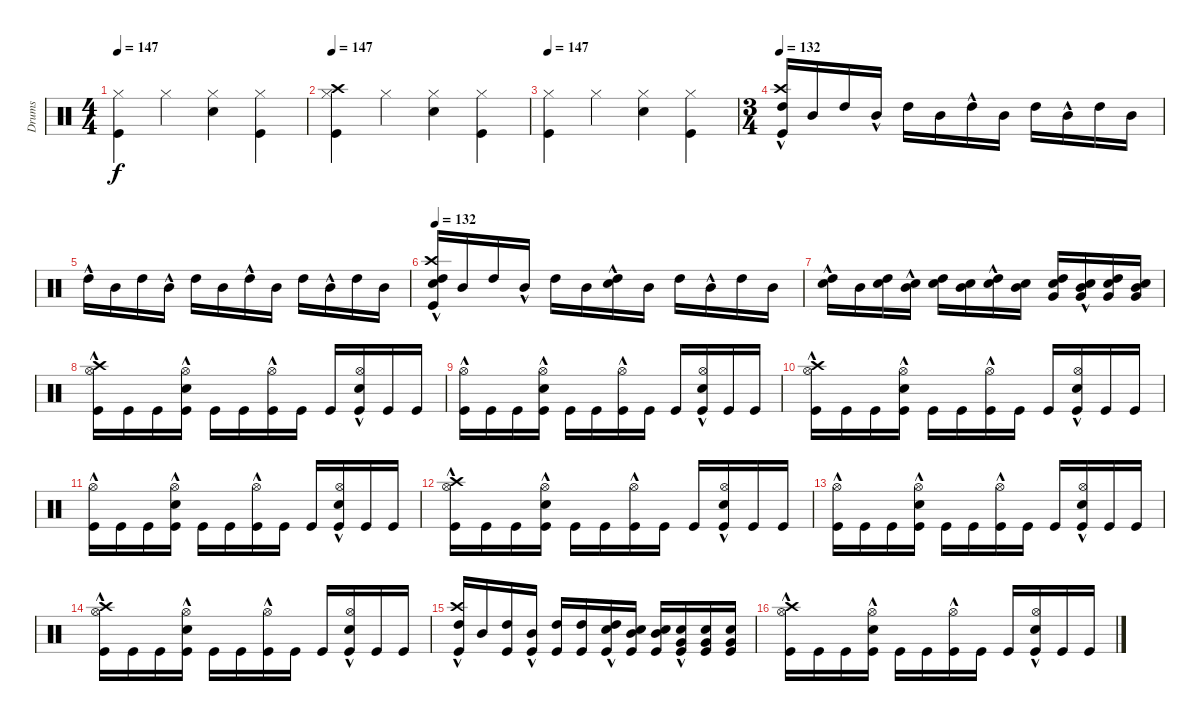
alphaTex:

\track ("Drums" "Drums") {instrument percussion}
\staff {score}
\articulation defaults
\ts (4 4)
\tempo 147
\clef neutral
\ks c
("Hi-Hat (closed)" "Kick (hit)").4{dy f} "Hi-Hat (closed)".4 ("Hi-Hat (closed)" "Snare (hit) 2").4 ("Hi-Hat (closed)" "Kick (hit)").4 |
\tempo 141
\tempo 147
("Hi-Hat (closed)" "Crash high (hit)" "Kick (hit)").4 "Hi-Hat (closed)".4 ("Hi-Hat (closed)" "Snare (hit) 2").4 ("Hi-Hat (closed)" "Kick (hit)").4 |
\tempo 147
("Hi-Hat (closed)" "Kick (hit)").4 "Hi-Hat (closed)".4 ("Hi-Hat (closed)" "Snare (hit) 2").4 ("Hi-Hat (closed)" "Kick (hit)").4 |
\ts (3 4)
\tempo 132
("High Tom (hit)"{hac} "Kick (hit)" "Crash high (hit)").16 "Mid Tom (hit)".16 "High Tom (hit)".16 "Mid Tom (hit)"{hac}.16 "High Tom (hit)".16 "Mid Tom (hit)".16 "High Tom (hit)"{hac}.16 "Mid Tom (hit)".16 "High Tom (hit)".16 "Mid Tom (hit)"{hac}.16 "High Tom (hit)".16 "Mid Tom (hit)".16 |
"High Tom (hit)"{hac}.16 "Mid Tom (hit)".16 "High Tom (hit)".16 "Mid Tom (hit)"{hac}.16 "High Tom (hit)".16 "Mid Tom (hit)".16 "High Tom (hit)"{hac}.16 "Mid Tom (hit)".16 "High Tom (hit)".16 "Mid Tom (hit)"{hac}.16 "High Tom (hit)".16 "Mid Tom (hit)".16 |
\tempo 132
("High Tom (hit)"{hac} "Kick (hit)" "Crash high (hit)" "Snare (hit) 2").16 "Mid Tom (hit)".16 "High Tom (hit)".16 "Mid Tom (hit)"{hac}.16 "High Tom (hit)".16 "Mid Tom (hit)".16 ("High Tom (hit)"{hac} "Snare (hit) 2").16 "Mid Tom (hit)".16 "High Tom (hit)".16 "Mid Tom (hit)"{hac}.16 "High Tom (hit)".16 "Mid Tom (hit)".16 |
("High Tom (hit)"{hac} "Snare (hit) 2").16 "Mid Tom (hit)".16 ("High Tom (hit)" "Snare (hit) 2").16 ("Mid Tom (hit)"{hac} "Snare (hit) 2").16 ("High Tom (hit)" "Snare (hit) 2").16 ("Mid Tom (hit)" "Snare (hit) 2").16 ("High Tom (hit)"{hac} "Snare (hit) 2").16 ("Mid Tom (hit)" "Snare (hit) 2").16 ("High Tom (hit)" "Very Low Tom (hit)" "Snare (hit) 2").16 ("Mid Tom (hit)"{hac} "Very Low Tom (hit)" "Snare (hit) 2").16 ("High Tom (hit)" "Very Low Tom (hit)" "Snare (hit) 2").16 ("Mid Tom (hit)" "Very Low Tom (hit)" "Snare (hit) 2").16 |
("Crash high (hit)" "Hi-Hat (open)"{hac} "Kick (hit)").16 "Kick (hit)".16 "Kick (hit)".16 ("Hi-Hat (open)"{hac} "Kick (hit)" "Electric Snare (hit)").16 "Kick (hit)".16 "Kick (hit)".16 ("Hi-Hat (open)"{hac} "Kick (hit)").16 "Kick (hit)".16 "Kick (hit)".16 ("Hi-Hat (open)"{hac} "Kick (hit)" "Electric Snare (hit)").16 "Kick (hit)".16 "Kick (hit)".16 |
("Hi-Hat (open)"{hac} "Kick (hit)").16 "Kick (hit)".16 "Kick (hit)".16 ("Hi-Hat (open)"{hac} "Kick (hit)" "Electric Snare (hit)").16 "Kick (hit)".16 "Kick (hit)".16 ("Hi-Hat (open)"{hac} "Kick (hit)").16 "Kick (hit)".16 "Kick (hit)".16 ("Hi-Hat (open)"{hac} "Kick (hit)" "Electric Snare (hit)").16 "Kick (hit)".16 "Kick (hit)".16 |
("Crash high (hit)" "Hi-Hat (open)"{hac} "Kick (hit)").16 "Kick (hit)".16 "Kick (hit)".16 ("Hi-Hat (open)"{hac} "Kick (hit)" "Electric Snare (hit)").16 "Kick (hit)".16 "Kick (hit)".16 ("Hi-Hat (open)"{hac} "Kick (hit)").16 "Kick (hit)".16 "Kick (hit)".16 ("Hi-Hat (open)"{hac} "Kick (hit)" "Electric Snare (hit)").16 "Kick (hit)".16 "Kick (hit)".16 |
("Hi-Hat (open)"{hac} "Kick (hit)").16 "Kick (hit)".16 "Kick (hit)".16 ("Hi-Hat (open)"{hac} "Kick (hit)" "Electric Snare (hit)").16 "Kick (hit)".16 "Kick (hit)".16 ("Hi-Hat (open)"{hac} "Kick (hit)").16 "Kick (hit)".16 "Kick (hit)".16 ("Hi-Hat (open)"{hac} "Kick (hit)" "Electric Snare (hit)").16 "Kick (hit)".16 "Kick (hit)".16 |
("Crash high (hit)" "Hi-Hat (open)"{hac} "Kick (hit)").16 "Kick (hit)".16 "Kick (hit)".16 ("Hi-Hat (open)"{hac} "Kick (hit)" "Electric Snare (hit)").16 "Kick (hit)".16 "Kick (hit)".16 ("Hi-Hat (open)"{hac} "Kick (hit)").16 "Kick (hit)".16 "Kick (hit)".16 ("Hi-Hat (open)"{hac} "Kick (hit)" "Electric Snare (hit)").16 "Kick (hit)".16 "Kick (hit)".16 |
("Hi-Hat (open)"{hac} "Kick (hit)").16 "Kick (hit)".16 "Kick (hit)".16 ("Hi-Hat (open)"{hac} "Kick (hit)" "Electric Snare (hit)").16 "Kick (hit)".16 "Kick (hit)".16 ("Hi-Hat (open)"{hac} "Kick (hit)").16 "Kick (hit)".16 "Kick (hit)".16 ("Hi-Hat (open)"{hac} "Kick (hit)" "Electric Snare (hit)").16 "Kick (hit)".16 "Kick (hit)".16 |
("Crash high (hit)" "Hi-Hat (open)"{hac} "Kick (hit)").16 "Kick (hit)".16 "Kick (hit)".16 ("Hi-Hat (open)"{hac} "Kick (hit)" "Electric Snare (hit)").16 "Kick (hit)".16 "Kick (hit)".16 ("Hi-Hat (open)"{hac} "Kick (hit)").16 "Kick (hit)".16 "Kick (hit)".16 ("Hi-Hat (open)"{hac} "Kick (hit)" "Electric Snare (hit)").16 "Kick (hit)".16 "Kick (hit)".16 |
("High Tom (hit)"{hac} "Crash high (hit)" "Kick (hit)").16 "Mid Tom (hit)".16 ("High Tom (hit)" "Kick (hit)").16 ("Mid Tom (hit)"{hac} "Kick (hit)").16 ("High Tom (hit)" "Kick (hit)").16 ("High Tom (hit)" "Kick (hit)").16 ("High Tom (hit)"{hac} "Snare (hit) 2" "Kick (hit)").16 ("Mid Tom (hit)" "Snare (hit) 2" "Kick (hit)").16 ("Mid Tom (hit)" "Snare (hit) 2" "Kick (hit)").16 ("Very Low Tom (hit)"{hac} "Snare (hit) 2" "Kick (hit)").16 ("Very Low Tom (hit)" "Snare (hit) 2" "Kick (hit)").16 ("Very Low Tom (hit)" "Snare (hit) 2" "Kick (hit)").16 |
("Crash high (hit)" "Hi-Hat (open)"{hac} "Kick (hit)").16 "Kick (hit)".16 "Kick (hit)".16 ("Hi-Hat (open)"{hac} "Kick (hit)" "Electric Snare (hit)").16 "Kick (hit)".16 "Kick (hit)".16 ("Hi-Hat (open)"{hac} "Kick (hit)").16 "Kick (hit)".16 "Kick (hit)".16 ("Hi-Hat (open)"{hac} "Kick (hit)" "Electric Snare (hit)").16 "Kick (hit)".16 "Kick (hit)".16
